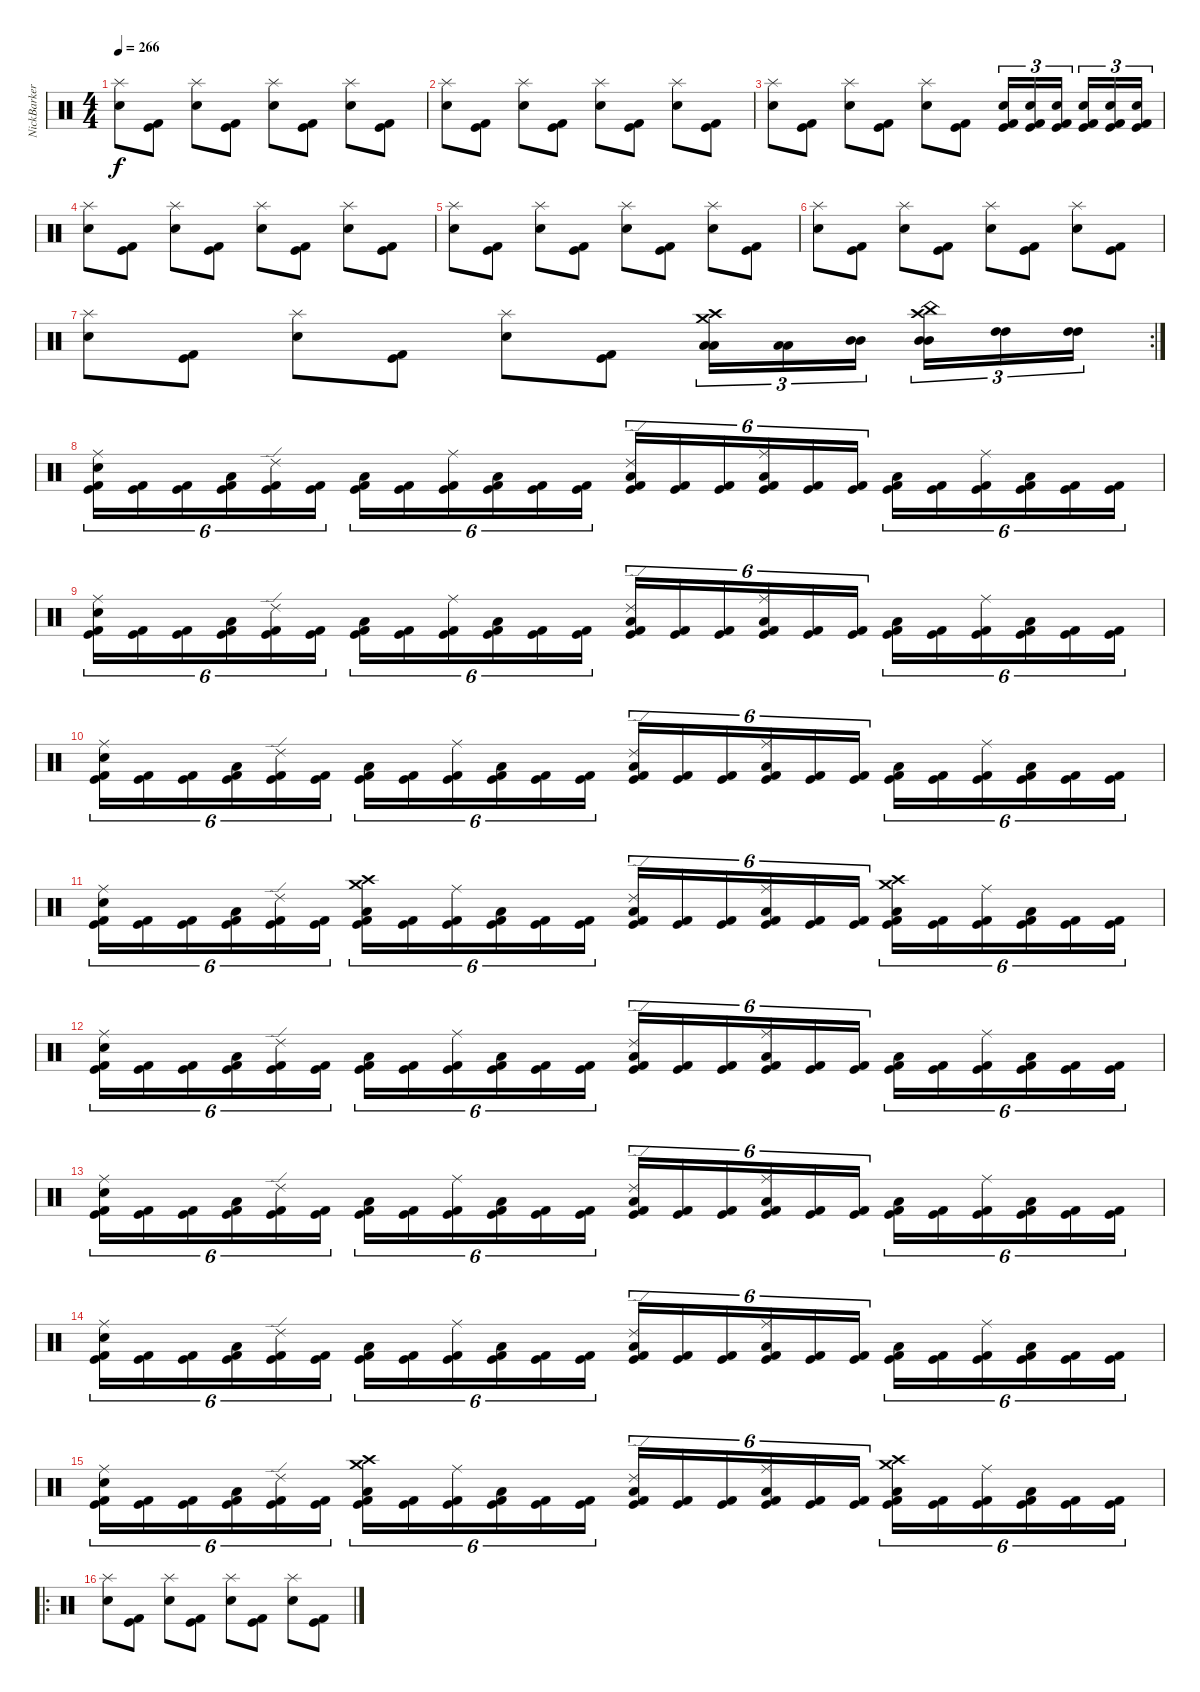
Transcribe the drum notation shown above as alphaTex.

\track ("NickBarker " "NickBarker") {instrument percussion}
\staff {score}
\articulation defaults
\ts (4 4)
\tempo 266
\clef neutral
\ks c
("Splash (hit)" "Electric Snare (hit)").8{dy f} ("Kick (hit)" "Kick (hit) 2").8 ("Splash (hit)" "Electric Snare (hit)").8 ("Kick (hit)" "Kick (hit) 2").8 ("Splash (hit)" "Electric Snare (hit)").8 ("Kick (hit)" "Kick (hit) 2").8 ("Splash (hit)" "Electric Snare (hit)").8 ("Kick (hit)" "Kick (hit) 2").8 |
("Splash (hit)" "Electric Snare (hit)").8 ("Kick (hit)" "Kick (hit) 2").8 ("Splash (hit)" "Electric Snare (hit)").8 ("Kick (hit)" "Kick (hit) 2").8 ("Splash (hit)" "Electric Snare (hit)").8 ("Kick (hit)" "Kick (hit) 2").8 ("Splash (hit)" "Electric Snare (hit)").8 ("Kick (hit)" "Kick (hit) 2").8 |
("Splash (hit)" "Electric Snare (hit)").8 ("Kick (hit)" "Kick (hit) 2").8 ("Splash (hit)" "Electric Snare (hit)").8 ("Kick (hit)" "Kick (hit) 2").8 ("Splash (hit)" "Electric Snare (hit)").8 ("Kick (hit)" "Kick (hit) 2").8 ("Kick (hit)" "Kick (hit) 2" "Electric Snare (hit)").16{tu (3 2)} ("Kick (hit)" "Kick (hit) 2" "Electric Snare (hit)").16{tu (3 2)} ("Kick (hit)" "Kick (hit) 2" "Electric Snare (hit)").16{tu (3 2)} ("Kick (hit)" "Kick (hit) 2" "Electric Snare (hit)").16{tu (3 2)} ("Kick (hit)" "Kick (hit) 2" "Electric Snare (hit)").16{tu (3 2)} ("Kick (hit)" "Kick (hit) 2" "Electric Snare (hit)").16{tu (3 2)} |
("Splash (hit)" "Electric Snare (hit)").8 ("Kick (hit)" "Kick (hit) 2").8 ("Splash (hit)" "Electric Snare (hit)").8 ("Kick (hit)" "Kick (hit) 2").8 ("Splash (hit)" "Electric Snare (hit)").8 ("Kick (hit)" "Kick (hit) 2").8 ("Splash (hit)" "Electric Snare (hit)").8 ("Kick (hit)" "Kick (hit) 2").8 |
("Splash (hit)" "Electric Snare (hit)").8 ("Kick (hit)" "Kick (hit) 2").8 ("Splash (hit)" "Electric Snare (hit)").8 ("Kick (hit)" "Kick (hit) 2").8 ("Splash (hit)" "Electric Snare (hit)").8 ("Kick (hit)" "Kick (hit) 2").8 ("Splash (hit)" "Electric Snare (hit)").8 ("Kick (hit)" "Kick (hit) 2").8 |
("Splash (hit)" "Electric Snare (hit)").8 ("Kick (hit)" "Kick (hit) 2").8 ("Splash (hit)" "Electric Snare (hit)").8 ("Kick (hit)" "Kick (hit) 2").8 ("Splash (hit)" "Electric Snare (hit)").8 ("Kick (hit)" "Kick (hit) 2").8 ("Splash (hit)" "Electric Snare (hit)").8 ("Kick (hit)" "Kick (hit) 2").8 |
\rc 2
("Splash (hit)" "Electric Snare (hit)").8 ("Kick (hit)" "Kick (hit) 2").8 ("Splash (hit)" "Electric Snare (hit)").8 ("Kick (hit)" "Kick (hit) 2").8 ("Splash (hit)" "Electric Snare (hit)").8 ("Kick (hit)" "Kick (hit) 2").8 ("Crash high (hit)" "Crash medium (hit)" "Low Tom (hit)" "Low Tom (hit)").16{tu (3 2)} ("Low Tom (hit)" "Low Tom (hit)").16{tu (3 2)} ("Mid Tom (hit)" "Mid Tom (hit)").16{tu (3 2)} ("Crash high (hit)" "China (hit)" "Mid Tom (hit)" "Mid Tom (hit)").16{tu (3 2)} ("High Tom (hit)" "High Tom (hit)").16{tu (3 2)} ("High Tom (hit)" "High Tom (hit)").16{tu (3 2)} |
("Kick (hit)" "Kick (hit) 2" "Ride (middle)" "Electric Snare (hit)").16{tu (6 4)} ("Kick (hit)" "Kick (hit) 2").16{tu (6 4)} ("Kick (hit)" "Kick (hit) 2").16{tu (6 4)} ("Kick (hit)" "Kick (hit) 2" "Low Floor Tom (hit)").16{tu (6 4)} ("Kick (hit)" "Kick (hit) 2" "Ride (edge) 2").16{tu (6 4)} ("Kick (hit)" "Kick (hit) 2").16{tu (6 4)} ("Kick (hit)" "Kick (hit) 2" "Low Floor Tom (hit)").16{tu (6 4)} ("Kick (hit)" "Kick (hit) 2").16{tu (6 4)} ("Kick (hit)" "Kick (hit) 2" "Ride (middle)").16{tu (6 4)} ("Kick (hit)" "Kick (hit) 2" "Low Floor Tom (hit)").16{tu (6 4)} ("Kick (hit)" "Kick (hit) 2").16{tu (6 4)} ("Kick (hit)" "Kick (hit) 2").16{tu (6 4)} ("Kick (hit)" "Kick (hit) 2" "Ride (edge) 2" "Low Floor Tom (hit)").16{tu (6 4)} ("Kick (hit)" "Kick (hit) 2").16{tu (6 4)} ("Kick (hit)" "Kick (hit) 2").16{tu (6 4)} ("Kick (hit)" "Kick (hit) 2" "Ride (middle)" "Low Floor Tom (hit)").16{tu (6 4)} ("Kick (hit)" "Kick (hit) 2").16{tu (6 4)} ("Kick (hit)" "Kick (hit) 2").16{tu (6 4)} ("Kick (hit)" "Kick (hit) 2" "Low Floor Tom (hit)").16{tu (6 4)} ("Kick (hit)" "Kick (hit) 2").16{tu (6 4)} ("Kick (hit)" "Kick (hit) 2" "Ride (middle)").16{tu (6 4)} ("Kick (hit)" "Kick (hit) 2" "Low Floor Tom (hit)").16{tu (6 4)} ("Kick (hit)" "Kick (hit) 2").16{tu (6 4)} ("Kick (hit)" "Kick (hit) 2").16{tu (6 4)} |
("Kick (hit)" "Kick (hit) 2" "Ride (middle)" "Electric Snare (hit)").16{tu (6 4)} ("Kick (hit)" "Kick (hit) 2").16{tu (6 4)} ("Kick (hit)" "Kick (hit) 2").16{tu (6 4)} ("Kick (hit)" "Kick (hit) 2" "Low Floor Tom (hit)").16{tu (6 4)} ("Kick (hit)" "Kick (hit) 2" "Ride (edge) 2").16{tu (6 4)} ("Kick (hit)" "Kick (hit) 2").16{tu (6 4)} ("Kick (hit)" "Kick (hit) 2" "Low Floor Tom (hit)").16{tu (6 4)} ("Kick (hit)" "Kick (hit) 2").16{tu (6 4)} ("Kick (hit)" "Kick (hit) 2" "Ride (middle)").16{tu (6 4)} ("Kick (hit)" "Kick (hit) 2" "Low Floor Tom (hit)").16{tu (6 4)} ("Kick (hit)" "Kick (hit) 2").16{tu (6 4)} ("Kick (hit)" "Kick (hit) 2").16{tu (6 4)} ("Kick (hit)" "Kick (hit) 2" "Ride (edge) 2" "Low Floor Tom (hit)").16{tu (6 4)} ("Kick (hit)" "Kick (hit) 2").16{tu (6 4)} ("Kick (hit)" "Kick (hit) 2").16{tu (6 4)} ("Kick (hit)" "Kick (hit) 2" "Ride (middle)" "Low Floor Tom (hit)").16{tu (6 4)} ("Kick (hit)" "Kick (hit) 2").16{tu (6 4)} ("Kick (hit)" "Kick (hit) 2").16{tu (6 4)} ("Kick (hit)" "Kick (hit) 2" "Low Floor Tom (hit)").16{tu (6 4)} ("Kick (hit)" "Kick (hit) 2").16{tu (6 4)} ("Kick (hit)" "Kick (hit) 2" "Ride (middle)").16{tu (6 4)} ("Kick (hit)" "Kick (hit) 2" "Low Floor Tom (hit)").16{tu (6 4)} ("Kick (hit)" "Kick (hit) 2").16{tu (6 4)} ("Kick (hit)" "Kick (hit) 2").16{tu (6 4)} |
("Kick (hit)" "Kick (hit) 2" "Ride (middle)" "Electric Snare (hit)").16{tu (6 4)} ("Kick (hit)" "Kick (hit) 2").16{tu (6 4)} ("Kick (hit)" "Kick (hit) 2").16{tu (6 4)} ("Kick (hit)" "Kick (hit) 2" "Low Floor Tom (hit)").16{tu (6 4)} ("Kick (hit)" "Kick (hit) 2" "Ride (edge) 2").16{tu (6 4)} ("Kick (hit)" "Kick (hit) 2").16{tu (6 4)} ("Kick (hit)" "Kick (hit) 2" "Low Floor Tom (hit)").16{tu (6 4)} ("Kick (hit)" "Kick (hit) 2").16{tu (6 4)} ("Kick (hit)" "Kick (hit) 2" "Ride (middle)").16{tu (6 4)} ("Kick (hit)" "Kick (hit) 2" "Low Floor Tom (hit)").16{tu (6 4)} ("Kick (hit)" "Kick (hit) 2").16{tu (6 4)} ("Kick (hit)" "Kick (hit) 2").16{tu (6 4)} ("Kick (hit)" "Kick (hit) 2" "Ride (edge) 2" "Low Floor Tom (hit)").16{tu (6 4)} ("Kick (hit)" "Kick (hit) 2").16{tu (6 4)} ("Kick (hit)" "Kick (hit) 2").16{tu (6 4)} ("Kick (hit)" "Kick (hit) 2" "Ride (middle)" "Low Floor Tom (hit)").16{tu (6 4)} ("Kick (hit)" "Kick (hit) 2").16{tu (6 4)} ("Kick (hit)" "Kick (hit) 2").16{tu (6 4)} ("Kick (hit)" "Kick (hit) 2" "Low Floor Tom (hit)").16{tu (6 4)} ("Kick (hit)" "Kick (hit) 2").16{tu (6 4)} ("Kick (hit)" "Kick (hit) 2" "Ride (middle)").16{tu (6 4)} ("Kick (hit)" "Kick (hit) 2" "Low Floor Tom (hit)").16{tu (6 4)} ("Kick (hit)" "Kick (hit) 2").16{tu (6 4)} ("Kick (hit)" "Kick (hit) 2").16{tu (6 4)} |
("Kick (hit)" "Kick (hit) 2" "Ride (middle)" "Electric Snare (hit)").16{tu (6 4)} ("Kick (hit)" "Kick (hit) 2").16{tu (6 4)} ("Kick (hit)" "Kick (hit) 2").16{tu (6 4)} ("Kick (hit)" "Kick (hit) 2" "Low Floor Tom (hit)").16{tu (6 4)} ("Kick (hit)" "Kick (hit) 2" "Ride (edge) 2").16{tu (6 4)} ("Kick (hit)" "Kick (hit) 2").16{tu (6 4)} ("Kick (hit)" "Kick (hit) 2" "Crash high (hit)" "Low Floor Tom (hit)" "Crash medium (hit)").16{tu (6 4)} ("Kick (hit)" "Kick (hit) 2").16{tu (6 4)} ("Kick (hit)" "Kick (hit) 2" "Ride (middle)").16{tu (6 4)} ("Kick (hit)" "Kick (hit) 2" "Low Floor Tom (hit)").16{tu (6 4)} ("Kick (hit)" "Kick (hit) 2").16{tu (6 4)} ("Kick (hit)" "Kick (hit) 2").16{tu (6 4)} ("Kick (hit)" "Kick (hit) 2" "Ride (edge) 2" "Low Floor Tom (hit)").16{tu (6 4)} ("Kick (hit)" "Kick (hit) 2").16{tu (6 4)} ("Kick (hit)" "Kick (hit) 2").16{tu (6 4)} ("Kick (hit)" "Kick (hit) 2" "Ride (middle)" "Low Floor Tom (hit)").16{tu (6 4)} ("Kick (hit)" "Kick (hit) 2").16{tu (6 4)} ("Kick (hit)" "Kick (hit) 2").16{tu (6 4)} ("Kick (hit)" "Kick (hit) 2" "Crash high (hit)" "Low Floor Tom (hit)" "Crash medium (hit)").16{tu (6 4)} ("Kick (hit)" "Kick (hit) 2").16{tu (6 4)} ("Kick (hit)" "Kick (hit) 2" "Ride (middle)").16{tu (6 4)} ("Kick (hit)" "Kick (hit) 2" "Low Floor Tom (hit)").16{tu (6 4)} ("Kick (hit)" "Kick (hit) 2").16{tu (6 4)} ("Kick (hit)" "Kick (hit) 2").16{tu (6 4)} |
("Kick (hit)" "Kick (hit) 2" "Ride (middle)" "Electric Snare (hit)").16{tu (6 4)} ("Kick (hit)" "Kick (hit) 2").16{tu (6 4)} ("Kick (hit)" "Kick (hit) 2").16{tu (6 4)} ("Kick (hit)" "Kick (hit) 2" "Low Floor Tom (hit)").16{tu (6 4)} ("Kick (hit)" "Kick (hit) 2" "Ride (edge) 2").16{tu (6 4)} ("Kick (hit)" "Kick (hit) 2").16{tu (6 4)} ("Kick (hit)" "Kick (hit) 2" "Low Floor Tom (hit)").16{tu (6 4)} ("Kick (hit)" "Kick (hit) 2").16{tu (6 4)} ("Kick (hit)" "Kick (hit) 2" "Ride (middle)").16{tu (6 4)} ("Kick (hit)" "Kick (hit) 2" "Low Floor Tom (hit)").16{tu (6 4)} ("Kick (hit)" "Kick (hit) 2").16{tu (6 4)} ("Kick (hit)" "Kick (hit) 2").16{tu (6 4)} ("Kick (hit)" "Kick (hit) 2" "Ride (edge) 2" "Low Floor Tom (hit)").16{tu (6 4)} ("Kick (hit)" "Kick (hit) 2").16{tu (6 4)} ("Kick (hit)" "Kick (hit) 2").16{tu (6 4)} ("Kick (hit)" "Kick (hit) 2" "Ride (middle)" "Low Floor Tom (hit)").16{tu (6 4)} ("Kick (hit)" "Kick (hit) 2").16{tu (6 4)} ("Kick (hit)" "Kick (hit) 2").16{tu (6 4)} ("Kick (hit)" "Kick (hit) 2" "Low Floor Tom (hit)").16{tu (6 4)} ("Kick (hit)" "Kick (hit) 2").16{tu (6 4)} ("Kick (hit)" "Kick (hit) 2" "Ride (middle)").16{tu (6 4)} ("Kick (hit)" "Kick (hit) 2" "Low Floor Tom (hit)").16{tu (6 4)} ("Kick (hit)" "Kick (hit) 2").16{tu (6 4)} ("Kick (hit)" "Kick (hit) 2").16{tu (6 4)} |
("Kick (hit)" "Kick (hit) 2" "Ride (middle)" "Electric Snare (hit)").16{tu (6 4)} ("Kick (hit)" "Kick (hit) 2").16{tu (6 4)} ("Kick (hit)" "Kick (hit) 2").16{tu (6 4)} ("Kick (hit)" "Kick (hit) 2" "Low Floor Tom (hit)").16{tu (6 4)} ("Kick (hit)" "Kick (hit) 2" "Ride (edge) 2").16{tu (6 4)} ("Kick (hit)" "Kick (hit) 2").16{tu (6 4)} ("Kick (hit)" "Kick (hit) 2" "Low Floor Tom (hit)").16{tu (6 4)} ("Kick (hit)" "Kick (hit) 2").16{tu (6 4)} ("Kick (hit)" "Kick (hit) 2" "Ride (middle)").16{tu (6 4)} ("Kick (hit)" "Kick (hit) 2" "Low Floor Tom (hit)").16{tu (6 4)} ("Kick (hit)" "Kick (hit) 2").16{tu (6 4)} ("Kick (hit)" "Kick (hit) 2").16{tu (6 4)} ("Kick (hit)" "Kick (hit) 2" "Ride (edge) 2" "Low Floor Tom (hit)").16{tu (6 4)} ("Kick (hit)" "Kick (hit) 2").16{tu (6 4)} ("Kick (hit)" "Kick (hit) 2").16{tu (6 4)} ("Kick (hit)" "Kick (hit) 2" "Ride (middle)" "Low Floor Tom (hit)").16{tu (6 4)} ("Kick (hit)" "Kick (hit) 2").16{tu (6 4)} ("Kick (hit)" "Kick (hit) 2").16{tu (6 4)} ("Kick (hit)" "Kick (hit) 2" "Low Floor Tom (hit)").16{tu (6 4)} ("Kick (hit)" "Kick (hit) 2").16{tu (6 4)} ("Kick (hit)" "Kick (hit) 2" "Ride (middle)").16{tu (6 4)} ("Kick (hit)" "Kick (hit) 2" "Low Floor Tom (hit)").16{tu (6 4)} ("Kick (hit)" "Kick (hit) 2").16{tu (6 4)} ("Kick (hit)" "Kick (hit) 2").16{tu (6 4)} |
("Kick (hit)" "Kick (hit) 2" "Ride (middle)" "Electric Snare (hit)").16{tu (6 4)} ("Kick (hit)" "Kick (hit) 2").16{tu (6 4)} ("Kick (hit)" "Kick (hit) 2").16{tu (6 4)} ("Kick (hit)" "Kick (hit) 2" "Low Floor Tom (hit)").16{tu (6 4)} ("Kick (hit)" "Kick (hit) 2" "Ride (edge) 2").16{tu (6 4)} ("Kick (hit)" "Kick (hit) 2").16{tu (6 4)} ("Kick (hit)" "Kick (hit) 2" "Low Floor Tom (hit)").16{tu (6 4)} ("Kick (hit)" "Kick (hit) 2").16{tu (6 4)} ("Kick (hit)" "Kick (hit) 2" "Ride (middle)").16{tu (6 4)} ("Kick (hit)" "Kick (hit) 2" "Low Floor Tom (hit)").16{tu (6 4)} ("Kick (hit)" "Kick (hit) 2").16{tu (6 4)} ("Kick (hit)" "Kick (hit) 2").16{tu (6 4)} ("Kick (hit)" "Kick (hit) 2" "Ride (edge) 2" "Low Floor Tom (hit)").16{tu (6 4)} ("Kick (hit)" "Kick (hit) 2").16{tu (6 4)} ("Kick (hit)" "Kick (hit) 2").16{tu (6 4)} ("Kick (hit)" "Kick (hit) 2" "Ride (middle)" "Low Floor Tom (hit)").16{tu (6 4)} ("Kick (hit)" "Kick (hit) 2").16{tu (6 4)} ("Kick (hit)" "Kick (hit) 2").16{tu (6 4)} ("Kick (hit)" "Kick (hit) 2" "Low Floor Tom (hit)").16{tu (6 4)} ("Kick (hit)" "Kick (hit) 2").16{tu (6 4)} ("Kick (hit)" "Kick (hit) 2" "Ride (middle)").16{tu (6 4)} ("Kick (hit)" "Kick (hit) 2" "Low Floor Tom (hit)").16{tu (6 4)} ("Kick (hit)" "Kick (hit) 2").16{tu (6 4)} ("Kick (hit)" "Kick (hit) 2").16{tu (6 4)} |
("Kick (hit)" "Kick (hit) 2" "Ride (middle)" "Electric Snare (hit)").16{tu (6 4)} ("Kick (hit)" "Kick (hit) 2").16{tu (6 4)} ("Kick (hit)" "Kick (hit) 2").16{tu (6 4)} ("Kick (hit)" "Kick (hit) 2" "Low Floor Tom (hit)").16{tu (6 4)} ("Kick (hit)" "Kick (hit) 2" "Ride (edge) 2").16{tu (6 4)} ("Kick (hit)" "Kick (hit) 2").16{tu (6 4)} ("Kick (hit)" "Kick (hit) 2" "Crash high (hit)" "Low Floor Tom (hit)" "Crash medium (hit)").16{tu (6 4)} ("Kick (hit)" "Kick (hit) 2").16{tu (6 4)} ("Kick (hit)" "Kick (hit) 2" "Ride (middle)").16{tu (6 4)} ("Kick (hit)" "Kick (hit) 2" "Low Floor Tom (hit)").16{tu (6 4)} ("Kick (hit)" "Kick (hit) 2").16{tu (6 4)} ("Kick (hit)" "Kick (hit) 2").16{tu (6 4)} ("Kick (hit)" "Kick (hit) 2" "Ride (edge) 2" "Low Floor Tom (hit)").16{tu (6 4)} ("Kick (hit)" "Kick (hit) 2").16{tu (6 4)} ("Kick (hit)" "Kick (hit) 2").16{tu (6 4)} ("Kick (hit)" "Kick (hit) 2" "Ride (middle)" "Low Floor Tom (hit)").16{tu (6 4)} ("Kick (hit)" "Kick (hit) 2").16{tu (6 4)} ("Kick (hit)" "Kick (hit) 2").16{tu (6 4)} ("Kick (hit)" "Kick (hit) 2" "Crash high (hit)" "Low Floor Tom (hit)" "Crash medium (hit)").16{tu (6 4)} ("Kick (hit)" "Kick (hit) 2").16{tu (6 4)} ("Kick (hit)" "Kick (hit) 2" "Ride (middle)").16{tu (6 4)} ("Kick (hit)" "Kick (hit) 2" "Low Floor Tom (hit)").16{tu (6 4)} ("Kick (hit)" "Kick (hit) 2").16{tu (6 4)} ("Kick (hit)" "Kick (hit) 2").16{tu (6 4)} |
\ro
("Splash (hit)" "Electric Snare (hit)").8 ("Kick (hit)" "Kick (hit) 2").8 ("Splash (hit)" "Electric Snare (hit)").8 ("Kick (hit)" "Kick (hit) 2").8 ("Splash (hit)" "Electric Snare (hit)").8 ("Kick (hit)" "Kick (hit) 2").8 ("Splash (hit)" "Electric Snare (hit)").8 ("Kick (hit)" "Kick (hit) 2").8
